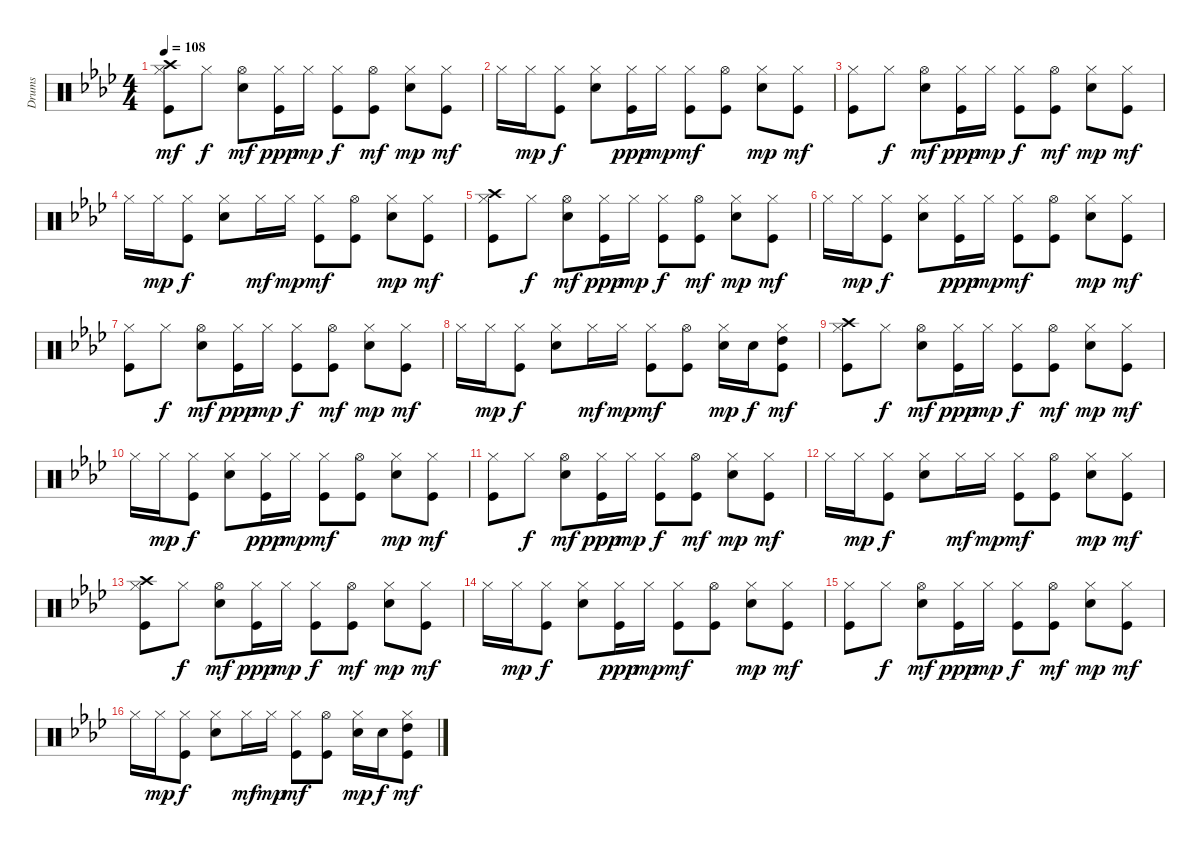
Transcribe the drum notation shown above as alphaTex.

\track ("Drums" "Drums") {instrument percussion}
\staff {score}
\articulation defaults
\ts (4 4)
\tempo 108
\clef neutral
\ks ab
("Kick (hit)" "Hi-Hat (closed)" "Crash high (hit)").8{dy mf} "Hi-Hat (closed)".8{dy f} ("Electric Snare (hit)" "Hi-Hat (open)").8{dy mf} ("Hi-Hat (closed)" "Kick (hit)").16{dy ppp} "Hi-Hat (closed)".16{dy mp} ("Kick (hit)" "Hi-Hat (closed)").8{dy f} ("Kick (hit)" "Hi-Hat (open)").8{dy mf} ("Electric Snare (hit)" "Hi-Hat (closed)").8{dy mp} ("Kick (hit)" "Hi-Hat (closed)").8{dy mf} |
"Hi-Hat (closed)".16 "Hi-Hat (closed)".16{dy mp} ("Kick (hit)" "Hi-Hat (closed)").8{dy f} ("Electric Snare (hit)" "Hi-Hat (closed)").8 ("Hi-Hat (closed)" "Kick (hit)").16{dy ppp} "Hi-Hat (closed)".16{dy mp} ("Kick (hit)" "Hi-Hat (closed)").8{dy mf} ("Kick (hit)" "Hi-Hat (open)").8 ("Electric Snare (hit)" "Hi-Hat (closed)").8{dy mp} ("Kick (hit)" "Hi-Hat (closed)").8{dy mf} |
("Kick (hit)" "Hi-Hat (closed)").8 "Hi-Hat (closed)".8{dy f} ("Electric Snare (hit)" "Hi-Hat (open)").8{dy mf} ("Hi-Hat (closed)" "Kick (hit)").16{dy ppp} "Hi-Hat (closed)".16{dy mp} ("Kick (hit)" "Hi-Hat (closed)").8{dy f} ("Kick (hit)" "Hi-Hat (open)").8{dy mf} ("Electric Snare (hit)" "Hi-Hat (closed)").8{dy mp} ("Kick (hit)" "Hi-Hat (closed)").8{dy mf} |
"Hi-Hat (closed)".16 "Hi-Hat (closed)".16{dy mp} ("Kick (hit)" "Hi-Hat (closed)").8{dy f} ("Electric Snare (hit)" "Hi-Hat (closed)").8 "Hi-Hat (closed)".16{dy mf} "Hi-Hat (closed)".16{dy mp} ("Kick (hit)" "Hi-Hat (closed)").8{dy mf} ("Kick (hit)" "Hi-Hat (open)").8 ("Electric Snare (hit)" "Hi-Hat (closed)").8{dy mp} ("Kick (hit)" "Hi-Hat (closed)").8{dy mf} |
("Kick (hit)" "Hi-Hat (closed)" "Crash high (hit)").8 "Hi-Hat (closed)".8{dy f} ("Electric Snare (hit)" "Hi-Hat (open)").8{dy mf} ("Hi-Hat (closed)" "Kick (hit)").16{dy ppp} "Hi-Hat (closed)".16{dy mp} ("Kick (hit)" "Hi-Hat (closed)").8{dy f} ("Kick (hit)" "Hi-Hat (open)").8{dy mf} ("Electric Snare (hit)" "Hi-Hat (closed)").8{dy mp} ("Kick (hit)" "Hi-Hat (closed)").8{dy mf} |
"Hi-Hat (closed)".16 "Hi-Hat (closed)".16{dy mp} ("Kick (hit)" "Hi-Hat (closed)").8{dy f} ("Electric Snare (hit)" "Hi-Hat (closed)").8 ("Hi-Hat (closed)" "Kick (hit)").16{dy ppp} "Hi-Hat (closed)".16{dy mp} ("Kick (hit)" "Hi-Hat (closed)").8{dy mf} ("Kick (hit)" "Hi-Hat (open)").8 ("Electric Snare (hit)" "Hi-Hat (closed)").8{dy mp} ("Kick (hit)" "Hi-Hat (closed)").8{dy mf} |
("Kick (hit)" "Hi-Hat (closed)").8 "Hi-Hat (closed)".8{dy f} ("Electric Snare (hit)" "Hi-Hat (open)").8{dy mf} ("Hi-Hat (closed)" "Kick (hit)").16{dy ppp} "Hi-Hat (closed)".16{dy mp} ("Kick (hit)" "Hi-Hat (closed)").8{dy f} ("Kick (hit)" "Hi-Hat (open)").8{dy mf} ("Electric Snare (hit)" "Hi-Hat (closed)").8{dy mp} ("Kick (hit)" "Hi-Hat (closed)").8{dy mf} |
"Hi-Hat (closed)".16 "Hi-Hat (closed)".16{dy mp} ("Kick (hit)" "Hi-Hat (closed)").8{dy f} ("Electric Snare (hit)" "Hi-Hat (closed)").8 "Hi-Hat (closed)".16{dy mf} "Hi-Hat (closed)".16{dy mp} ("Kick (hit)" "Hi-Hat (closed)").8{dy mf} ("Kick (hit)" "Hi-Hat (open)").8 ("Electric Snare (hit)" "Hi-Hat (closed)").16{dy mp} "Electric Snare (hit)".16{dy f} ("Kick (hit)" "Hi-Hat (closed)" "High Tom (hit)").8{dy mf} |
("Kick (hit)" "Hi-Hat (closed)" "Crash high (hit)").8 "Hi-Hat (closed)".8{dy f} ("Electric Snare (hit)" "Hi-Hat (open)").8{dy mf} ("Hi-Hat (closed)" "Kick (hit)").16{dy ppp} "Hi-Hat (closed)".16{dy mp} ("Kick (hit)" "Hi-Hat (closed)").8{dy f} ("Kick (hit)" "Hi-Hat (open)").8{dy mf} ("Electric Snare (hit)" "Hi-Hat (closed)").8{dy mp} ("Kick (hit)" "Hi-Hat (closed)").8{dy mf} |
"Hi-Hat (closed)".16 "Hi-Hat (closed)".16{dy mp} ("Kick (hit)" "Hi-Hat (closed)").8{dy f} ("Electric Snare (hit)" "Hi-Hat (closed)").8 ("Hi-Hat (closed)" "Kick (hit)").16{dy ppp} "Hi-Hat (closed)".16{dy mp} ("Kick (hit)" "Hi-Hat (closed)").8{dy mf} ("Kick (hit)" "Hi-Hat (open)").8 ("Electric Snare (hit)" "Hi-Hat (closed)").8{dy mp} ("Kick (hit)" "Hi-Hat (closed)").8{dy mf} |
("Kick (hit)" "Hi-Hat (closed)").8 "Hi-Hat (closed)".8{dy f} ("Electric Snare (hit)" "Hi-Hat (open)").8{dy mf} ("Hi-Hat (closed)" "Kick (hit)").16{dy ppp} "Hi-Hat (closed)".16{dy mp} ("Kick (hit)" "Hi-Hat (closed)").8{dy f} ("Kick (hit)" "Hi-Hat (open)").8{dy mf} ("Electric Snare (hit)" "Hi-Hat (closed)").8{dy mp} ("Kick (hit)" "Hi-Hat (closed)").8{dy mf} |
"Hi-Hat (closed)".16 "Hi-Hat (closed)".16{dy mp} ("Kick (hit)" "Hi-Hat (closed)").8{dy f} ("Electric Snare (hit)" "Hi-Hat (closed)").8 "Hi-Hat (closed)".16{dy mf} "Hi-Hat (closed)".16{dy mp} ("Kick (hit)" "Hi-Hat (closed)").8{dy mf} ("Kick (hit)" "Hi-Hat (open)").8 ("Electric Snare (hit)" "Hi-Hat (closed)").8{dy mp} ("Kick (hit)" "Hi-Hat (closed)").8{dy mf} |
("Kick (hit)" "Hi-Hat (closed)" "Crash high (hit)").8 "Hi-Hat (closed)".8{dy f} ("Electric Snare (hit)" "Hi-Hat (open)").8{dy mf} ("Hi-Hat (closed)" "Kick (hit)").16{dy ppp} "Hi-Hat (closed)".16{dy mp} ("Kick (hit)" "Hi-Hat (closed)").8{dy f} ("Kick (hit)" "Hi-Hat (open)").8{dy mf} ("Electric Snare (hit)" "Hi-Hat (closed)").8{dy mp} ("Kick (hit)" "Hi-Hat (closed)").8{dy mf} |
"Hi-Hat (closed)".16 "Hi-Hat (closed)".16{dy mp} ("Kick (hit)" "Hi-Hat (closed)").8{dy f} ("Electric Snare (hit)" "Hi-Hat (closed)").8 ("Hi-Hat (closed)" "Kick (hit)").16{dy ppp} "Hi-Hat (closed)".16{dy mp} ("Kick (hit)" "Hi-Hat (closed)").8{dy mf} ("Kick (hit)" "Hi-Hat (open)").8 ("Electric Snare (hit)" "Hi-Hat (closed)").8{dy mp} ("Kick (hit)" "Hi-Hat (closed)").8{dy mf} |
("Kick (hit)" "Hi-Hat (closed)").8 "Hi-Hat (closed)".8{dy f} ("Electric Snare (hit)" "Hi-Hat (open)").8{dy mf} ("Hi-Hat (closed)" "Kick (hit)").16{dy ppp} "Hi-Hat (closed)".16{dy mp} ("Kick (hit)" "Hi-Hat (closed)").8{dy f} ("Kick (hit)" "Hi-Hat (open)").8{dy mf} ("Electric Snare (hit)" "Hi-Hat (closed)").8{dy mp} ("Kick (hit)" "Hi-Hat (closed)").8{dy mf} |
"Hi-Hat (closed)".16 "Hi-Hat (closed)".16{dy mp} ("Kick (hit)" "Hi-Hat (closed)").8{dy f} ("Electric Snare (hit)" "Hi-Hat (closed)").8 "Hi-Hat (closed)".16{dy mf} "Hi-Hat (closed)".16{dy mp} ("Kick (hit)" "Hi-Hat (closed)").8{dy mf} ("Kick (hit)" "Hi-Hat (open)").8 ("Electric Snare (hit)" "Hi-Hat (closed)").16{dy mp} "Electric Snare (hit)".16{dy f} ("Kick (hit)" "Hi-Hat (closed)" "High Tom (hit)").8{dy mf}
